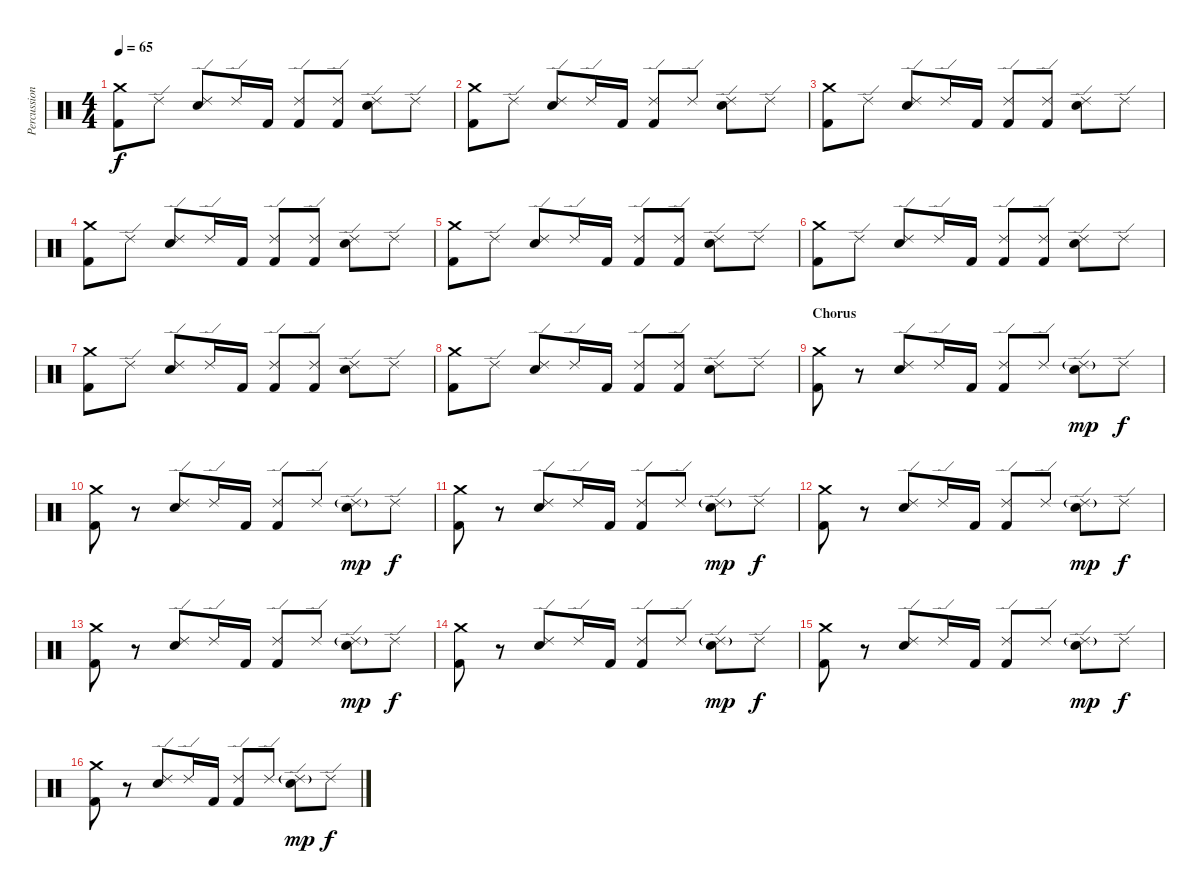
\track ("Percussion" "Percussion") {instrument percussion}
\staff {score}
\articulation defaults
\ts (4 4)
\tempo 65
\clef neutral
\ks c
("Crash medium (hit)" "Kick (hit) 2").8{dy f} "Ride (edge) 2".8 ("Ride (edge) 2" "Snare (hit) 2").8 "Ride (edge) 2".16 "Kick (hit) 2".16 ("Ride (edge) 2" "Kick (hit) 2").8 ("Ride (edge) 2" "Kick (hit) 2").8 ("Ride (edge) 2" "Snare (hit) 2").8 "Ride (edge) 2".8 |
("Crash medium (hit)" "Kick (hit) 2").8 "Ride (edge) 2".8 ("Ride (edge) 2" "Snare (hit) 2").8 "Ride (edge) 2".16 "Kick (hit) 2".16 ("Ride (edge) 2" "Kick (hit) 2").8 "Ride (edge) 2".8 ("Ride (edge) 2" "Snare (hit) 2").8 "Ride (edge) 2".8 |
("Crash medium (hit)" "Kick (hit) 2").8 "Ride (edge) 2".8 ("Ride (edge) 2" "Snare (hit) 2").8 "Ride (edge) 2".16 "Kick (hit) 2".16 ("Ride (edge) 2" "Kick (hit) 2").8 ("Ride (edge) 2" "Kick (hit) 2").8 ("Ride (edge) 2" "Snare (hit) 2").8 "Ride (edge) 2".8 |
("Crash medium (hit)" "Kick (hit) 2").8 "Ride (edge) 2".8 ("Ride (edge) 2" "Snare (hit) 2").8 "Ride (edge) 2".16 "Kick (hit) 2".16 ("Ride (edge) 2" "Kick (hit) 2").8 ("Ride (edge) 2" "Kick (hit) 2").8 ("Ride (edge) 2" "Snare (hit) 2").8 "Ride (edge) 2".8 |
("Crash medium (hit)" "Kick (hit) 2").8 "Ride (edge) 2".8 ("Ride (edge) 2" "Snare (hit) 2").8 "Ride (edge) 2".16 "Kick (hit) 2".16 ("Ride (edge) 2" "Kick (hit) 2").8 ("Ride (edge) 2" "Kick (hit) 2").8 ("Ride (edge) 2" "Snare (hit) 2").8 "Ride (edge) 2".8 |
("Crash medium (hit)" "Kick (hit) 2").8 "Ride (edge) 2".8 ("Ride (edge) 2" "Snare (hit) 2").8 "Ride (edge) 2".16 "Kick (hit) 2".16 ("Ride (edge) 2" "Kick (hit) 2").8 ("Ride (edge) 2" "Kick (hit) 2").8 ("Ride (edge) 2" "Snare (hit) 2").8 "Ride (edge) 2".8 |
("Crash medium (hit)" "Kick (hit) 2").8 "Ride (edge) 2".8 ("Ride (edge) 2" "Snare (hit) 2").8 "Ride (edge) 2".16 "Kick (hit) 2".16 ("Ride (edge) 2" "Kick (hit) 2").8 ("Ride (edge) 2" "Kick (hit) 2").8 ("Ride (edge) 2" "Snare (hit) 2").8 "Ride (edge) 2".8 |
("Crash medium (hit)" "Kick (hit) 2").8 "Ride (edge) 2".8 ("Ride (edge) 2" "Snare (hit) 2").8 "Ride (edge) 2".16 "Kick (hit) 2".16 ("Ride (edge) 2" "Kick (hit) 2").8 ("Ride (edge) 2" "Kick (hit) 2").8 ("Ride (edge) 2" "Snare (hit) 2").8 "Ride (edge) 2".8 |
\section ("" "Chorus")
("Crash medium (hit)" "Kick (hit) 2").8 r.8 ("Ride (edge) 2" "Snare (hit) 2").8 "Ride (edge) 2".16 "Kick (hit) 2".16 ("Ride (edge) 2" "Kick (hit) 2").8 "Ride (edge) 2".8 ("Ride (edge) 2"{g} "Snare (hit) 2").8{dy mp} "Ride (edge) 2".8{dy f} |
("Crash medium (hit)" "Kick (hit) 2").8 r.8 ("Ride (edge) 2" "Snare (hit) 2").8 "Ride (edge) 2".16 "Kick (hit) 2".16 ("Ride (edge) 2" "Kick (hit) 2").8 "Ride (edge) 2".8 ("Ride (edge) 2"{g} "Snare (hit) 2").8{dy mp} "Ride (edge) 2".8{dy f} |
("Crash medium (hit)" "Kick (hit) 2").8 r.8 ("Ride (edge) 2" "Snare (hit) 2").8 "Ride (edge) 2".16 "Kick (hit) 2".16 ("Ride (edge) 2" "Kick (hit) 2").8 "Ride (edge) 2".8 ("Ride (edge) 2"{g} "Snare (hit) 2").8{dy mp} "Ride (edge) 2".8{dy f} |
("Crash medium (hit)" "Kick (hit) 2").8 r.8 ("Ride (edge) 2" "Snare (hit) 2").8 "Ride (edge) 2".16 "Kick (hit) 2".16 ("Ride (edge) 2" "Kick (hit) 2").8 "Ride (edge) 2".8 ("Ride (edge) 2"{g} "Snare (hit) 2").8{dy mp} "Ride (edge) 2".8{dy f} |
("Crash medium (hit)" "Kick (hit) 2").8 r.8 ("Ride (edge) 2" "Snare (hit) 2").8 "Ride (edge) 2".16 "Kick (hit) 2".16 ("Ride (edge) 2" "Kick (hit) 2").8 "Ride (edge) 2".8 ("Ride (edge) 2"{g} "Snare (hit) 2").8{dy mp} "Ride (edge) 2".8{dy f} |
("Crash medium (hit)" "Kick (hit) 2").8 r.8 ("Ride (edge) 2" "Snare (hit) 2").8 "Ride (edge) 2".16 "Kick (hit) 2".16 ("Ride (edge) 2" "Kick (hit) 2").8 "Ride (edge) 2".8 ("Ride (edge) 2"{g} "Snare (hit) 2").8{dy mp} "Ride (edge) 2".8{dy f} |
("Crash medium (hit)" "Kick (hit) 2").8 r.8 ("Ride (edge) 2" "Snare (hit) 2").8 "Ride (edge) 2".16 "Kick (hit) 2".16 ("Ride (edge) 2" "Kick (hit) 2").8 "Ride (edge) 2".8 ("Ride (edge) 2"{g} "Snare (hit) 2").8{dy mp} "Ride (edge) 2".8{dy f} |
("Crash medium (hit)" "Kick (hit) 2").8 r.8 ("Ride (edge) 2" "Snare (hit) 2").8 "Ride (edge) 2".16 "Kick (hit) 2".16 ("Ride (edge) 2" "Kick (hit) 2").8 "Ride (edge) 2".8 ("Ride (edge) 2"{g} "Snare (hit) 2").8{dy mp} "Ride (edge) 2".8{dy f}
